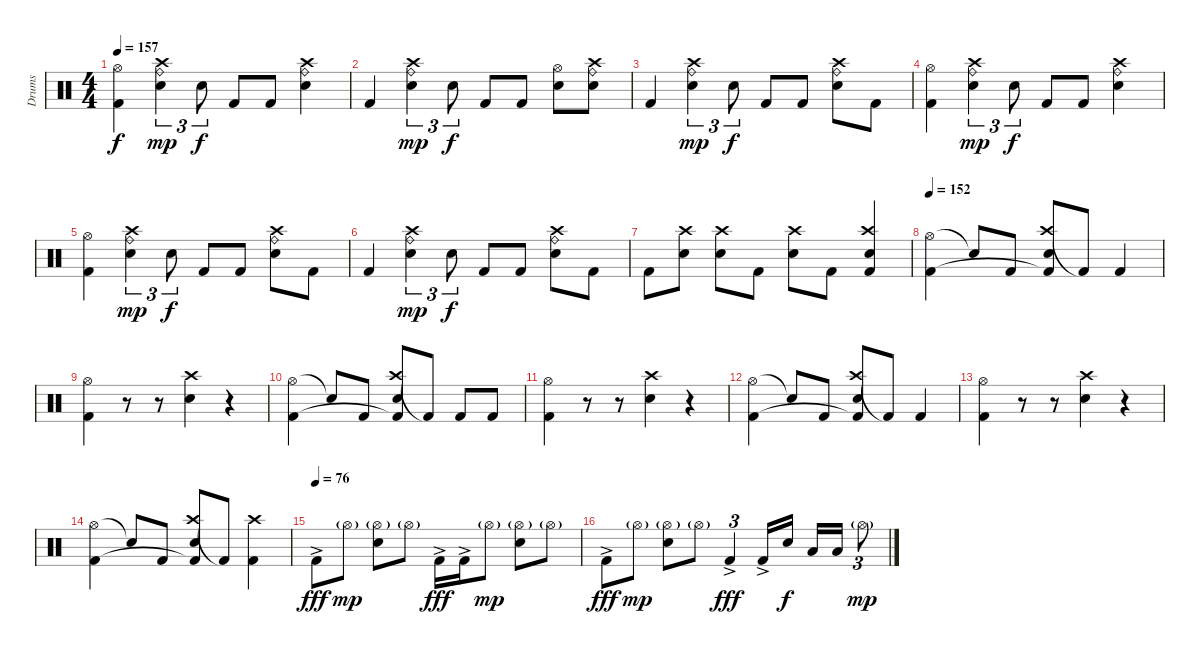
\track ("Drums" "Drums") {instrument percussion}
\staff {score}
\articulation defaults
\ts (4 4)
\tempo 157
\clef neutral
\ks c
("Kick (hit) 2" "Hi-Hat (open)").4{dy f} ("Crash high (hit)" "Electric Snare (hit)" "Ride (bell)").4{tu (3 2) dy mp} "Electric Snare (hit)".8{tu (3 2) dy f} "Kick (hit) 2".8 "Kick (hit) 2".8 ("Ride (bell)" "Crash high (hit)" "Electric Snare (hit)").4 |
"Kick (hit) 2".4 ("Crash high (hit)" "Electric Snare (hit)" "Ride (bell)").4{tu (3 2) dy mp} "Electric Snare (hit)".8{tu (3 2) dy f} "Kick (hit) 2".8 "Kick (hit) 2".8 ("Electric Snare (hit)" "Hi-Hat (open)").8 ("Ride (bell)" "Crash high (hit)" "Electric Snare (hit)").8 |
"Kick (hit) 2".4 ("Crash high (hit)" "Electric Snare (hit)" "Ride (bell)").4{tu (3 2) dy mp} "Electric Snare (hit)".8{tu (3 2) dy f} "Kick (hit) 2".8 "Kick (hit) 2".8 ("Ride (bell)" "Crash high (hit)" "Electric Snare (hit)").8 "Kick (hit) 2".8 |
("Kick (hit) 2" "Hi-Hat (open)").4 ("Crash high (hit)" "Electric Snare (hit)" "Ride (bell)").4{tu (3 2) dy mp} "Electric Snare (hit)".8{tu (3 2) dy f} "Kick (hit) 2".8 "Kick (hit) 2".8 ("Ride (bell)" "Crash high (hit)" "Electric Snare (hit)").4 |
("Kick (hit) 2" "Hi-Hat (open)").4 ("Crash high (hit)" "Electric Snare (hit)" "Ride (bell)").4{tu (3 2) dy mp} "Electric Snare (hit)".8{tu (3 2) dy f} "Kick (hit) 2".8 "Kick (hit) 2".8 ("Ride (bell)" "Crash high (hit)" "Electric Snare (hit)").8 "Kick (hit) 2".8 |
"Kick (hit) 2".4 ("Crash high (hit)" "Electric Snare (hit)" "Ride (bell)").4{tu (3 2) dy mp} "Electric Snare (hit)".8{tu (3 2) dy f} "Kick (hit) 2".8 "Kick (hit) 2".8 ("Ride (bell)" "Crash high (hit)" "Electric Snare (hit)").8 "Kick (hit) 2".8 |
"Kick (hit) 2".8 ("Electric Snare (hit)" "Crash high (hit)").8 ("Electric Snare (hit)" "Crash high (hit)").8 "Kick (hit) 2".8 ("Electric Snare (hit)" "Crash high (hit)").8 "Kick (hit) 2".8 ("Electric Snare (hit)" "Crash high (hit)" "Kick (hit) 2").4 |
\tempo 152
("Hi-Hat (open)" "Kick (hit) 2").4 "Snare (hit)"{t}.8 "Kick (hit) 2".8 ("Crash high (hit)" "Kick (hit) 2"{t} "Electric Snare (hit)").8 "Kick (hit) 2"{t}.8 "Kick (hit) 2".4 |
("Hi-Hat (open)" "Kick (hit) 2").4 r.8 r.8 ("Crash high (hit)" "Electric Snare (hit)").4 r.4 |
("Hi-Hat (open)" "Kick (hit) 2").4 "Snare (hit)"{t}.8 "Kick (hit) 2".8 ("Crash high (hit)" "Kick (hit) 2"{t} "Electric Snare (hit)").8 "Kick (hit) 2"{t}.8 "Kick (hit) 2".8 "Kick (hit) 2".8 |
("Hi-Hat (open)" "Kick (hit) 2").4 r.8 r.8 ("Crash high (hit)" "Electric Snare (hit)").4 r.4 |
("Hi-Hat (open)" "Kick (hit) 2").4 "Snare (hit)"{t}.8 "Kick (hit) 2".8 ("Crash high (hit)" "Kick (hit) 2"{t} "Electric Snare (hit)").8 "Kick (hit) 2"{t}.8 "Kick (hit) 2".4 |
("Hi-Hat (open)" "Kick (hit) 2").4 r.8 r.8 ("Crash high (hit)" "Electric Snare (hit)").4 r.4 |
("Hi-Hat (open)" "Kick (hit) 2").4 "Snare (hit)"{t}.8 "Kick (hit) 2".8 ("Crash high (hit)" "Kick (hit) 2"{t} "Electric Snare (hit)").8 "Kick (hit) 2"{t}.8 ("Crash high (hit)" "Kick (hit) 2").4 |
\tempo (76)
"Kick (hit) 2"{ac}.8{dy fff} "Hi-Hat (open)"{g}.8{dy mp} ("Hi-Hat (open)"{g} "Electric Snare (hit)").8 "Hi-Hat (open)"{g}.8 "Kick (hit) 2"{ac}.16{dy fff} "Kick (hit) 2"{ac}.16 "Hi-Hat (open)"{g}.8{dy mp} ("Hi-Hat (open)"{g} "Electric Snare (hit)").8 "Hi-Hat (open)"{g}.8 |
"Kick (hit) 2"{ac}.8{dy fff} "Hi-Hat (open)"{g}.8{dy mp} ("Hi-Hat (open)"{g} "Electric Snare (hit)").8 "Hi-Hat (open)"{g}.8 "Kick (hit) 2"{ac}.4{tu (3 2) dy fff} "Kick (hit) 2"{ac}.16 "Electric Snare (hit)".16{dy f} "Low Tom (hit)".16 "Low Floor Tom (hit)".16 "Hi-Hat (open)"{g}.8{tu (3 2) dy mp}
